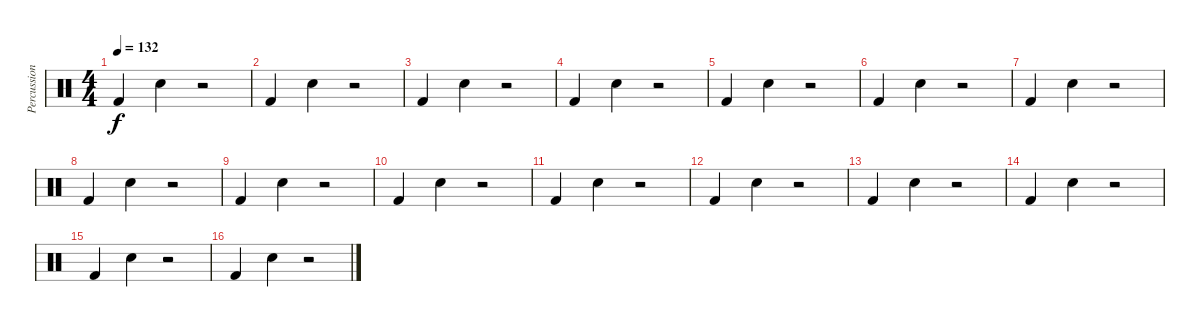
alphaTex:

\track ("Percussion" "Percussion") {instrument percussion}
\staff {score}
\articulation defaults
\ts (4 4)
\tempo 132
\clef neutral
\ks c "Kick (hit) 2".4{dy f} "Electric Snare (hit)".4
r.2 |
"Kick (hit) 2".4 "Electric Snare (hit)".4 r.2 |
"Kick (hit) 2".4 "Electric Snare (hit)".4 r.2 |
"Kick (hit) 2".4 "Electric Snare (hit)".4 r.2 |
"Kick (hit) 2".4 "Electric Snare (hit)".4 r.2 |
"Kick (hit) 2".4 "Electric Snare (hit)".4 r.2 |
"Kick (hit) 2".4 "Electric Snare (hit)".4 r.2 |
"Kick (hit) 2".4 "Electric Snare (hit)".4 r.2 |
"Kick (hit) 2".4 "Electric Snare (hit)".4 r.2 |
"Kick (hit) 2".4 "Electric Snare (hit)".4 r.2 |
"Kick (hit) 2".4 "Electric Snare (hit)".4 r.2 |
"Kick (hit) 2".4 "Electric Snare (hit)".4 r.2 |
"Kick (hit) 2".4 "Electric Snare (hit)".4 r.2 |
"Kick (hit) 2".4 "Electric Snare (hit)".4 r.2 |
"Kick (hit) 2".4 "Electric Snare (hit)".4 r.2 |
"Kick (hit) 2".4 "Electric Snare (hit)".4 r.2
